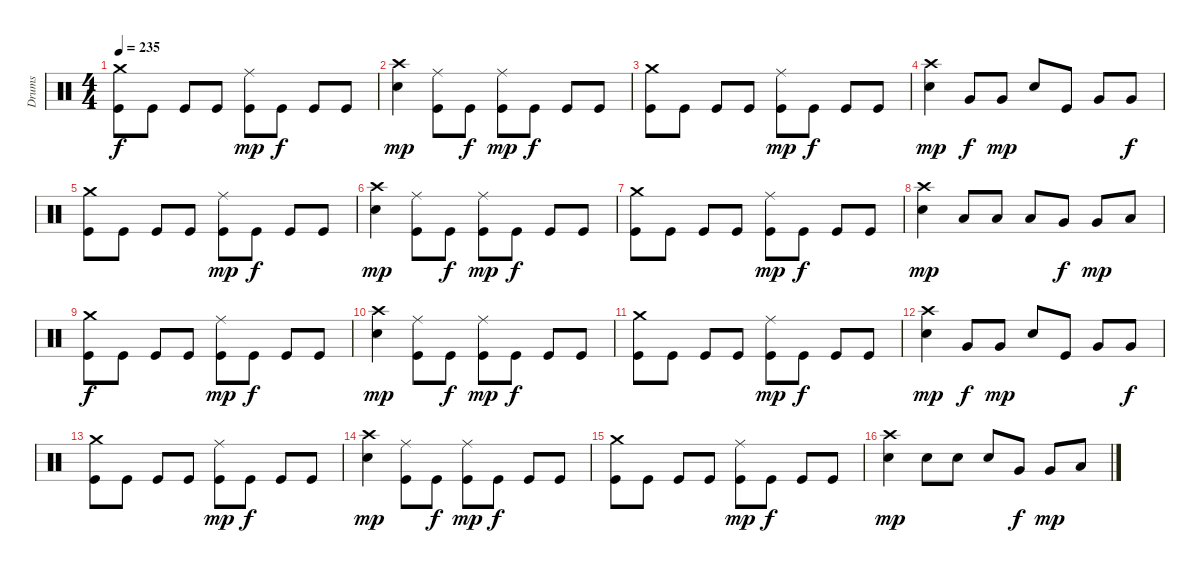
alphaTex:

\track ("Drums" "Drums") {instrument percussion}
\staff {score}
\articulation defaults
\ts (4 4)
\tempo 235
\clef neutral
\ks c
("Crash medium (hit)" "Kick (hit)").8{dy f} "Kick (hit)".8 "Kick (hit)".8 "Kick (hit)".8 ("Ride (middle)" "Kick (hit)").8{dy mp} "Kick (hit)".8{dy f} "Kick (hit)".8 "Kick (hit)".8 |
("Crash high (hit)" "Snare (hit) 2").4{dy mp} ("Ride (middle)" "Kick (hit)").8 "Kick (hit)".8{dy f} ("Ride (middle)" "Kick (hit)").8{dy mp} "Kick (hit)".8{dy f} "Kick (hit)".8 "Kick (hit)".8 |
("Crash medium (hit)" "Kick (hit)").8 "Kick (hit)".8 "Kick (hit)".8 "Kick (hit)".8 ("Ride (middle)" "Kick (hit)").8{dy mp} "Kick (hit)".8{dy f} "Kick (hit)".8 "Kick (hit)".8 |
("Crash high (hit)" "Snare (hit) 2").4{dy mp} "Very Low Tom (hit)".8{dy f} "Very Low Tom (hit)".8{dy mp} "Snare (hit) 2".8 "Kick (hit)".8 "Very Low Tom (hit)".8 "Very Low Tom (hit)".8{dy f} |
("Crash medium (hit)" "Kick (hit)").8 "Kick (hit)".8 "Kick (hit)".8 "Kick (hit)".8 ("Ride (middle)" "Kick (hit)").8{dy mp} "Kick (hit)".8{dy f} "Kick (hit)".8 "Kick (hit)".8 |
("Crash high (hit)" "Snare (hit) 2").4{dy mp} ("Ride (middle)" "Kick (hit)").8 "Kick (hit)".8{dy f} ("Ride (middle)" "Kick (hit)").8{dy mp} "Kick (hit)".8{dy f} "Kick (hit)".8 "Kick (hit)".8 |
("Crash medium (hit)" "Kick (hit)").8 "Kick (hit)".8 "Kick (hit)".8 "Kick (hit)".8 ("Ride (middle)" "Kick (hit)").8{dy mp} "Kick (hit)".8{dy f} "Kick (hit)".8 "Kick (hit)".8 |
("Crash high (hit)" "Snare (hit) 2").4{dy mp} "Low Tom (hit)".8 "Low Tom (hit)".8 "Low Tom (hit)".8 "Very Low Tom (hit)".8{dy f} "Very Low Tom (hit)".8{dy mp} "Low Floor Tom (hit)".8 |
("Crash medium (hit)" "Kick (hit)").8{dy f} "Kick (hit)".8 "Kick (hit)".8 "Kick (hit)".8 ("Ride (middle)" "Kick (hit)").8{dy mp} "Kick (hit)".8{dy f} "Kick (hit)".8 "Kick (hit)".8 |
("Crash high (hit)" "Snare (hit) 2").4{dy mp} ("Ride (middle)" "Kick (hit)").8 "Kick (hit)".8{dy f} ("Ride (middle)" "Kick (hit)").8{dy mp} "Kick (hit)".8{dy f} "Kick (hit)".8 "Kick (hit)".8 |
("Crash medium (hit)" "Kick (hit)").8 "Kick (hit)".8 "Kick (hit)".8 "Kick (hit)".8 ("Ride (middle)" "Kick (hit)").8{dy mp} "Kick (hit)".8{dy f} "Kick (hit)".8 "Kick (hit)".8 |
("Crash high (hit)" "Snare (hit) 2").4{dy mp} "Very Low Tom (hit)".8{dy f} "Very Low Tom (hit)".8{dy mp} "Snare (hit) 2".8 "Kick (hit)".8 "Very Low Tom (hit)".8 "Very Low Tom (hit)".8{dy f} |
("Crash medium (hit)" "Kick (hit)").8 "Kick (hit)".8 "Kick (hit)".8 "Kick (hit)".8 ("Ride (middle)" "Kick (hit)").8{dy mp} "Kick (hit)".8{dy f} "Kick (hit)".8 "Kick (hit)".8 |
("Crash high (hit)" "Snare (hit) 2").4{dy mp} ("Ride (middle)" "Kick (hit)").8 "Kick (hit)".8{dy f} ("Ride (middle)" "Kick (hit)").8{dy mp} "Kick (hit)".8{dy f} "Kick (hit)".8 "Kick (hit)".8 |
("Crash medium (hit)" "Kick (hit)").8 "Kick (hit)".8 "Kick (hit)".8 "Kick (hit)".8 ("Ride (middle)" "Kick (hit)").8{dy mp} "Kick (hit)".8{dy f} "Kick (hit)".8 "Kick (hit)".8 |
("Crash high (hit)" "Snare (hit) 2").4{dy mp} "Snare (hit) 2".8 "Snare (hit) 2".8 "Snare (hit) 2".8 "Very Low Tom (hit)".8{dy f} "Very Low Tom (hit)".8{dy mp} "Low Floor Tom (hit)".8
